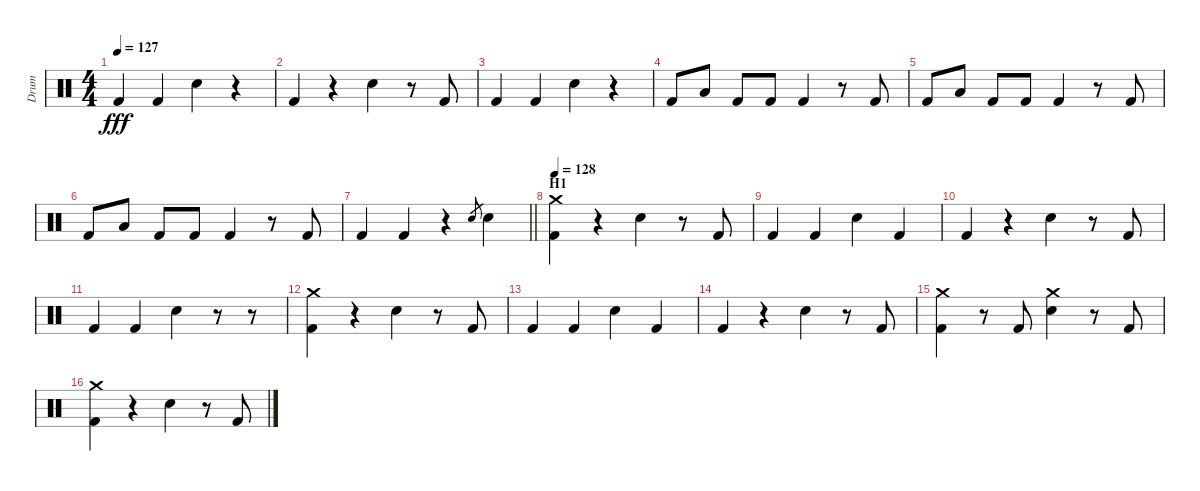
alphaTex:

\track ("Drum" "Drum") {instrument percussion}
\staff {score}
\articulation defaults
\ts (4 4)
\tempo 127
\clef neutral
\ks c "Kick (hit) 2".4{dy fff} "Kick (hit) 2".4 "Electric Snare (hit)".4
r.4 |
"Kick (hit) 2".4 r.4 "Electric Snare (hit)".4 r.8 "Kick (hit) 2".8 |
"Kick (hit) 2".4 "Kick (hit) 2".4 "Electric Snare (hit)".4 r.4 |
"Kick (hit) 2".8 "Low Tom (hit)".8 "Kick (hit) 2".8 "Kick (hit) 2".8 "Kick (hit) 2".4 r.8 "Kick (hit) 2".8 |
"Kick (hit) 2".8 "Low Tom (hit)".8 "Kick (hit) 2".8 "Kick (hit) 2".8 "Kick (hit) 2".4 r.8 "Kick (hit) 2".8 |
"Kick (hit) 2".8 "Low Tom (hit)".8 "Kick (hit) 2".8 "Kick (hit) 2".8 "Kick (hit) 2".4 r.8 "Kick (hit) 2".8 |
\barLineRight lightlight "Kick (hit) 2".4 "Kick (hit) 2".4
r.4 "Electric Snare (hit)".8{gr} "Electric Snare (hit)".4 |
\section ("" "H1")
\tempo 128
("Kick (hit) 2" "Crash medium (hit)").4 r.4 "Electric Snare (hit)".4 r.8 "Kick (hit) 2".8 |
"Kick (hit) 2".4 "Kick (hit) 2".4 "Electric Snare (hit)".4 "Kick (hit) 2".4 |
"Kick (hit) 2".4 r.4 "Electric Snare (hit)".4 r.8 "Kick (hit) 2".8 |
"Kick (hit) 2".4 "Kick (hit) 2".4 "Electric Snare (hit)".4 r.8 r.8 |
("Kick (hit) 2" "Crash medium (hit)").4 r.4 "Electric Snare (hit)".4 r.8 "Kick (hit) 2".8 |
"Kick (hit) 2".4 "Kick (hit) 2".4 "Electric Snare (hit)".4 "Kick (hit) 2".4 |
"Kick (hit) 2".4 r.4 "Electric Snare (hit)".4 r.8 "Kick (hit) 2".8 |
("Kick (hit) 2" "Crash medium (hit)").4 r.8 "Kick (hit) 2".8 ("Electric Snare (hit)" "Crash medium (hit)").4 r.8 "Kick (hit) 2".8 |
("Kick (hit) 2" "Crash medium (hit)").4 r.4 "Electric Snare (hit)".4 r.8 "Kick (hit) 2".8
